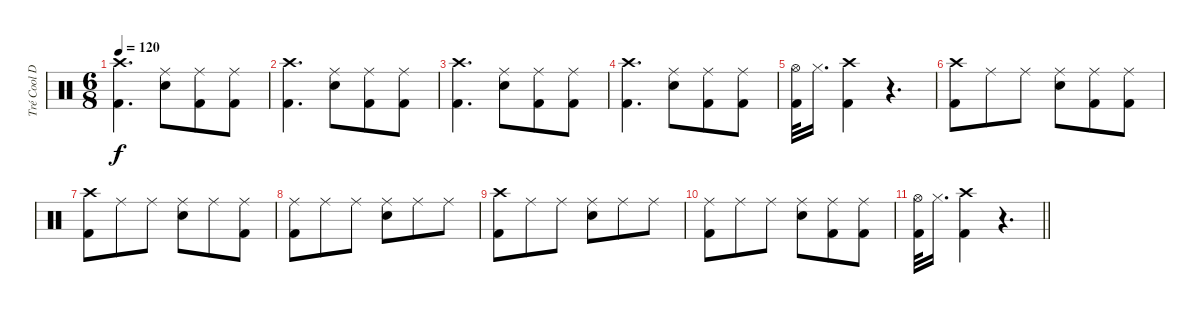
\track ("Tré Cool Drums" "Tré Cool D") {instrument percussion}
\staff {score}
\articulation defaults
\ts (6 8)
\tempo 120
\clef neutral
\ks c
("Crash high (hit)" "Kick (hit) 2").4{d dy f} ("Ride (middle)" "Snare (hit) 2").8 ("Ride (middle)" "Kick (hit) 2").8 ("Ride (middle)" "Kick (hit) 2").8 |
("Crash high (hit)" "Kick (hit) 2").4{d} ("Ride (middle)" "Snare (hit) 2").8 ("Ride (middle)" "Kick (hit) 2").8 ("Ride (middle)" "Kick (hit) 2").8 |
("Crash high (hit)" "Kick (hit) 2").4{d} ("Ride (middle)" "Snare (hit) 2").8 ("Ride (middle)" "Kick (hit) 2").8 ("Ride (middle)" "Kick (hit) 2").8 |
("Crash high (hit)" "Kick (hit) 2").4{d} ("Ride (middle)" "Snare (hit) 2").8 ("Ride (middle)" "Kick (hit) 2").8 ("Ride (middle)" "Kick (hit) 2").8 |
("Hi-Hat (open)" "Kick (hit) 2").32 "Hi-Hat (closed)".16{d} ("Crash high (hit)" "Kick (hit) 2").4 r.4{d} |
("Crash high (hit)" "Kick (hit) 2").8 "Ride (middle)".8 "Ride (middle)".8 ("Ride (middle)" "Snare (hit) 2").8 ("Ride (middle)" "Kick (hit) 2").8 ("Ride (middle)" "Kick (hit) 2").8 |
("Crash high (hit)" "Kick (hit) 2").8 "Ride (middle)".8 "Ride (middle)".8 ("Ride (middle)" "Snare (hit) 2").8 "Ride (middle)".8 ("Ride (middle)" "Kick (hit) 2").8 |
("Ride (middle)" "Kick (hit) 2").8 "Ride (middle)".8 "Ride (middle)".8 ("Ride (middle)" "Snare (hit) 2").8 "Ride (middle)".8 "Ride (middle)".8 |
("Crash high (hit)" "Kick (hit) 2").8 "Ride (middle)".8 "Ride (middle)".8 ("Ride (middle)" "Snare (hit) 2").8 "Ride (middle)".8 "Ride (middle)".8 |
("Ride (middle)" "Kick (hit) 2").8 "Ride (middle)".8 "Ride (middle)".8 ("Ride (middle)" "Snare (hit) 2").8 ("Ride (middle)" "Kick (hit) 2").8 ("Ride (middle)" "Kick (hit) 2").8 |
\barLineRight lightlight
("Hi-Hat (open)" "Kick (hit) 2").32 "Hi-Hat (closed)".16{d} ("Crash high (hit)" "Kick (hit) 2").4 r.4{d}
